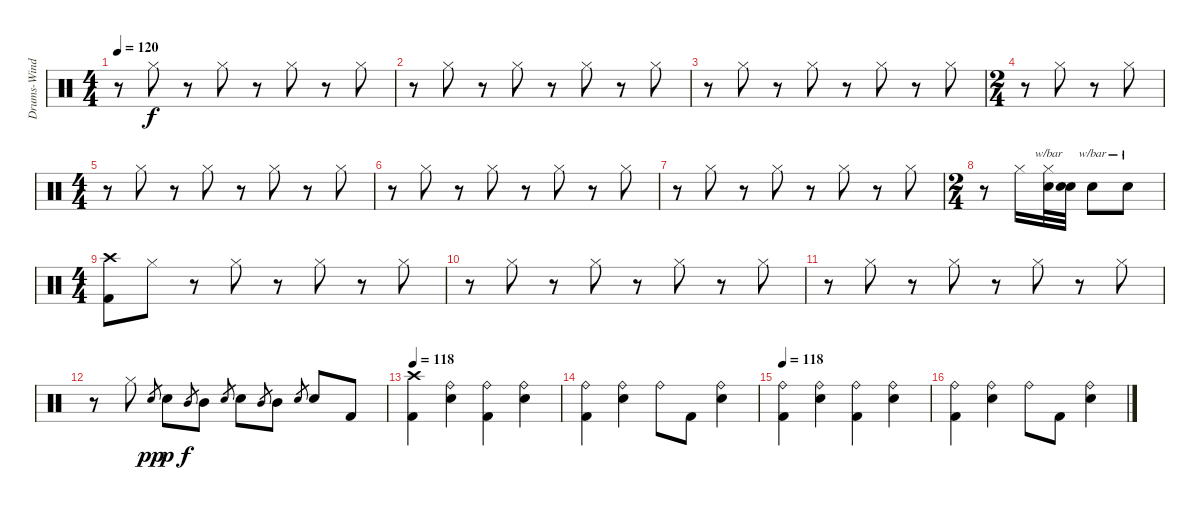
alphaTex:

\track ("Drums-Wind (Bengerg)" "Drums-Wind") {instrument percussion}
\staff {score}
\articulation defaults
\ts (4 4)
\tempo 120
\clef neutral
\ks c
r.8{dy f} "Hi-Hat (closed)".8 r.8 "Hi-Hat (closed)".8 r.8 "Hi-Hat (closed)".8 r.8 "Hi-Hat (closed)".8 |
r.8 "Hi-Hat (closed)".8 r.8 "Hi-Hat (closed)".8 r.8 "Hi-Hat (closed)".8 r.8 "Hi-Hat (closed)".8 |
r.8 "Hi-Hat (closed)".8 r.8 "Hi-Hat (closed)".8 r.8 "Hi-Hat (closed)".8 r.8 "Hi-Hat (closed)".8 |
\ts (2 4)
r.8 "Hi-Hat (closed)".8 r.8 "Hi-Hat (closed)".8 |
\ts (4 4)
r.8 "Hi-Hat (closed)".8 r.8 "Hi-Hat (closed)".8 r.8 "Hi-Hat (closed)".8 r.8 "Hi-Hat (closed)".8 |
r.8 "Hi-Hat (closed)".8 r.8 "Hi-Hat (closed)".8 r.8 "Hi-Hat (closed)".8 r.8 "Hi-Hat (closed)".8 |
r.8 "Hi-Hat (closed)".8 r.8 "Hi-Hat (closed)".8 r.8 "Hi-Hat (closed)".8 r.8 "Hi-Hat (closed)".8 |
\ts (2 4)
r.8 "Hi-Hat (closed)".16 ("Hi-Hat (closed)" "Electric Snare (hit)").32{tbe (custom default 0 12 45 12 60 0)} ("Snare (hit)"{t} "Electric Snare (hit)").32 "Electric Snare (hit)".8{tbe (custom default 0 12 45 12 60 0) balance 16} "Electric Snare (hit)".8{tbe (custom default 0 12 45 12 60 0) balance 0} |
\ts (4 4)
("Crash high (hit)" "Kick (hit) 2").8{balance 8} "Hi-Hat (closed)".8 r.8 "Hi-Hat (closed)".8 r.8 "Hi-Hat (closed)".8 r.8 "Hi-Hat (closed)".8 |
r.8 "Hi-Hat (closed)".8 r.8 "Hi-Hat (closed)".8 r.8 "Hi-Hat (closed)".8 r.8 "Hi-Hat (closed)".8 |
r.8 "Hi-Hat (closed)".8 r.8 "Hi-Hat (closed)".8 r.8 "Hi-Hat (closed)".8 r.8 "Hi-Hat (closed)".8 |
r.8 "Hi-Hat (closed)".8 "Electric Snare (hit)".8{gr dy pp} "Electric Snare (hit)".8{dy p} "Mid Tom (hit)".8{gr dy f} "Mid Tom (hit)".8 "Electric Snare (hit)".8{gr} "Electric Snare (hit)".8 "Mid Tom (hit)".8{gr} "Mid Tom (hit)".8 "Electric Snare (hit)".8{gr} "Electric Snare (hit)".8 "Kick (hit) 2".8 |
\tempo 118
("Crash high (hit)" "Kick (hit) 2").4 ("Ride (bell)" "Electric Snare (hit)").4 ("Ride (bell)" "Kick (hit) 2").4 ("Ride (bell)" "Electric Snare (hit)").4 |
("Ride (bell)" "Kick (hit) 2").4 ("Ride (bell)" "Electric Snare (hit)").4 "Ride (bell)".8 "Kick (hit) 2".8 ("Ride (bell)" "Electric Snare (hit)").4 |
\tempo 118
("Ride (bell)" "Kick (hit) 2").4 ("Ride (bell)" "Electric Snare (hit)").4 ("Ride (bell)" "Kick (hit) 2").4 ("Ride (bell)" "Electric Snare (hit)").4 |
("Ride (bell)" "Kick (hit) 2").4 ("Ride (bell)" "Electric Snare (hit)").4 "Ride (bell)".8 "Kick (hit) 2".8 ("Ride (bell)" "Electric Snare (hit)").4
